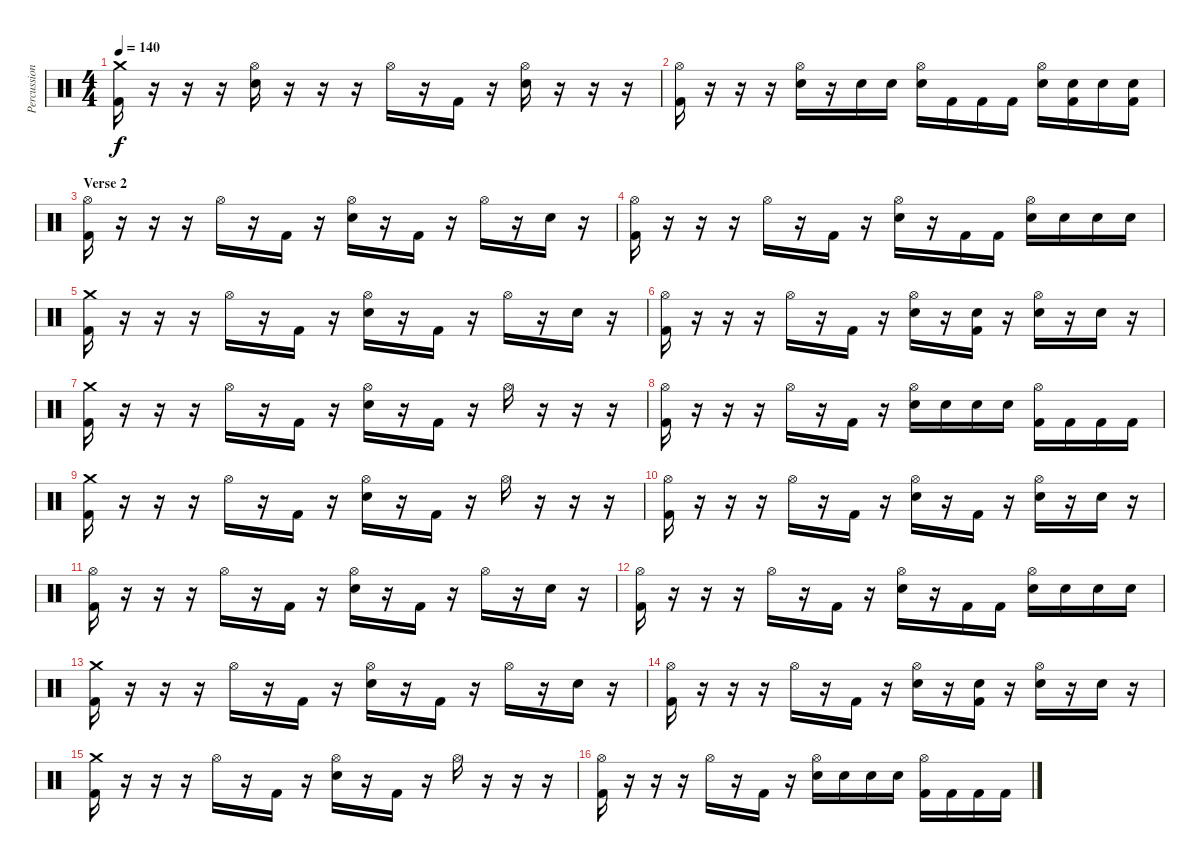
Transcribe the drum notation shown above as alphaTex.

\track ("Percussion" "Percussion") {instrument percussion}
\staff {score}
\articulation defaults
\ts (4 4)
\tempo 140
\clef neutral
\ks c
("Crash medium (hit)" "Kick (hit) 2").16{dy f} r.16 r.16 r.16 ("Hi-Hat (open)" "Snare (hit) 2").16 r.16 r.16 r.16 "Hi-Hat (open)".16 r.16 "Kick (hit) 2".16 r.16 ("Hi-Hat (open)" "Snare (hit) 2").16 r.16 r.16 r.16 |
("Hi-Hat (open)" "Kick (hit) 2").16 r.16 r.16 r.16 ("Hi-Hat (open)" "Snare (hit) 2").16 r.16 "Snare (hit) 2".16 "Snare (hit) 2".16 ("Hi-Hat (open)" "Snare (hit) 2").16 "Kick (hit) 2".16 "Kick (hit) 2".16 "Kick (hit) 2".16 ("Hi-Hat (open)" "Snare (hit) 2").16 ("Snare (hit) 2" "Kick (hit) 2").16 "Snare (hit) 2".16 ("Snare (hit) 2" "Kick (hit) 2").16 |
\section ("" "Verse 2")
("Hi-Hat (open)" "Kick (hit) 2").16 r.16 r.16 r.16 "Hi-Hat (open)".16 r.16 "Kick (hit) 2".16 r.16 ("Hi-Hat (open)" "Snare (hit) 2").16 r.16 "Kick (hit) 2".16 r.16 "Hi-Hat (open)".16 r.16 "Snare (hit) 2".16 r.16 |
("Hi-Hat (open)" "Kick (hit) 2").16 r.16 r.16 r.16 "Hi-Hat (open)".16 r.16 "Kick (hit) 2".16 r.16 ("Hi-Hat (open)" "Snare (hit) 2").16 r.16 "Kick (hit) 2".16 "Kick (hit) 2".16 ("Hi-Hat (open)" "Snare (hit) 2").16 "Snare (hit) 2".16 "Snare (hit) 2".16 "Snare (hit) 2".16 |
("Crash medium (hit)" "Kick (hit) 2").16 r.16 r.16 r.16 "Hi-Hat (open)".16 r.16 "Kick (hit) 2".16 r.16 ("Hi-Hat (open)" "Snare (hit) 2").16 r.16 "Kick (hit) 2".16 r.16 "Hi-Hat (open)".16 r.16 "Snare (hit) 2".16 r.16 |
("Hi-Hat (open)" "Kick (hit) 2").16 r.16 r.16 r.16 "Hi-Hat (open)".16 r.16 "Kick (hit) 2".16 r.16 ("Hi-Hat (open)" "Snare (hit) 2").16 r.16 ("Snare (hit) 2" "Kick (hit) 2").16 r.16 ("Hi-Hat (open)" "Snare (hit) 2").16 r.16 "Snare (hit) 2".16 r.16 |
("Crash medium (hit)" "Kick (hit) 2").16 r.16 r.16 r.16 "Hi-Hat (open)".16 r.16 "Kick (hit) 2".16 r.16 ("Hi-Hat (open)" "Snare (hit) 2").16 r.16 "Kick (hit) 2".16 r.16 "Hi-Hat (open)".16 r.16 r.16 r.16 |
("Hi-Hat (open)" "Kick (hit) 2").16 r.16 r.16 r.16 "Hi-Hat (open)".16 r.16 "Kick (hit) 2".16 r.16 ("Hi-Hat (open)" "Snare (hit) 2").16 "Snare (hit) 2".16 "Snare (hit) 2".16 "Snare (hit) 2".16 ("Hi-Hat (open)" "Kick (hit) 2").16 "Kick (hit) 2".16 "Kick (hit) 2".16 "Kick (hit) 2".16 |
("Crash medium (hit)" "Kick (hit) 2").16 r.16 r.16 r.16 "Hi-Hat (open)".16 r.16 "Kick (hit) 2".16 r.16 ("Hi-Hat (open)" "Snare (hit) 2").16 r.16 "Kick (hit) 2".16 r.16 "Hi-Hat (open)".16 r.16 r.16 r.16 |
("Hi-Hat (open)" "Kick (hit) 2").16 r.16 r.16 r.16 "Hi-Hat (open)".16 r.16 "Kick (hit) 2".16 r.16 ("Hi-Hat (open)" "Snare (hit) 2").16 r.16 "Kick (hit) 2".16 r.16 ("Hi-Hat (open)" "Snare (hit) 2").16 r.16 "Snare (hit) 2".16 r.16 |
("Hi-Hat (open)" "Kick (hit) 2").16 r.16 r.16 r.16 "Hi-Hat (open)".16 r.16 "Kick (hit) 2".16 r.16 ("Hi-Hat (open)" "Snare (hit) 2").16 r.16 "Kick (hit) 2".16 r.16 "Hi-Hat (open)".16 r.16 "Snare (hit) 2".16 r.16 |
("Hi-Hat (open)" "Kick (hit) 2").16 r.16 r.16 r.16 "Hi-Hat (open)".16 r.16 "Kick (hit) 2".16 r.16 ("Hi-Hat (open)" "Snare (hit) 2").16 r.16 "Kick (hit) 2".16 "Kick (hit) 2".16 ("Hi-Hat (open)" "Snare (hit) 2").16 "Snare (hit) 2".16 "Snare (hit) 2".16 "Snare (hit) 2".16 |
("Crash medium (hit)" "Kick (hit) 2").16 r.16 r.16 r.16 "Hi-Hat (open)".16 r.16 "Kick (hit) 2".16 r.16 ("Hi-Hat (open)" "Snare (hit) 2").16 r.16 "Kick (hit) 2".16 r.16 "Hi-Hat (open)".16 r.16 "Snare (hit) 2".16 r.16 |
("Hi-Hat (open)" "Kick (hit) 2").16 r.16 r.16 r.16 "Hi-Hat (open)".16 r.16 "Kick (hit) 2".16 r.16 ("Hi-Hat (open)" "Snare (hit) 2").16 r.16 ("Snare (hit) 2" "Kick (hit) 2").16 r.16 ("Hi-Hat (open)" "Snare (hit) 2").16 r.16 "Snare (hit) 2".16 r.16 |
("Crash medium (hit)" "Kick (hit) 2").16 r.16 r.16 r.16 "Hi-Hat (open)".16 r.16 "Kick (hit) 2".16 r.16 ("Hi-Hat (open)" "Snare (hit) 2").16 r.16 "Kick (hit) 2".16 r.16 "Hi-Hat (open)".16 r.16 r.16 r.16 |
("Hi-Hat (open)" "Kick (hit) 2").16 r.16 r.16 r.16 "Hi-Hat (open)".16 r.16 "Kick (hit) 2".16 r.16 ("Hi-Hat (open)" "Snare (hit) 2").16 "Snare (hit) 2".16 "Snare (hit) 2".16 "Snare (hit) 2".16 ("Hi-Hat (open)" "Kick (hit) 2").16 "Kick (hit) 2".16 "Kick (hit) 2".16 "Kick (hit) 2".16
